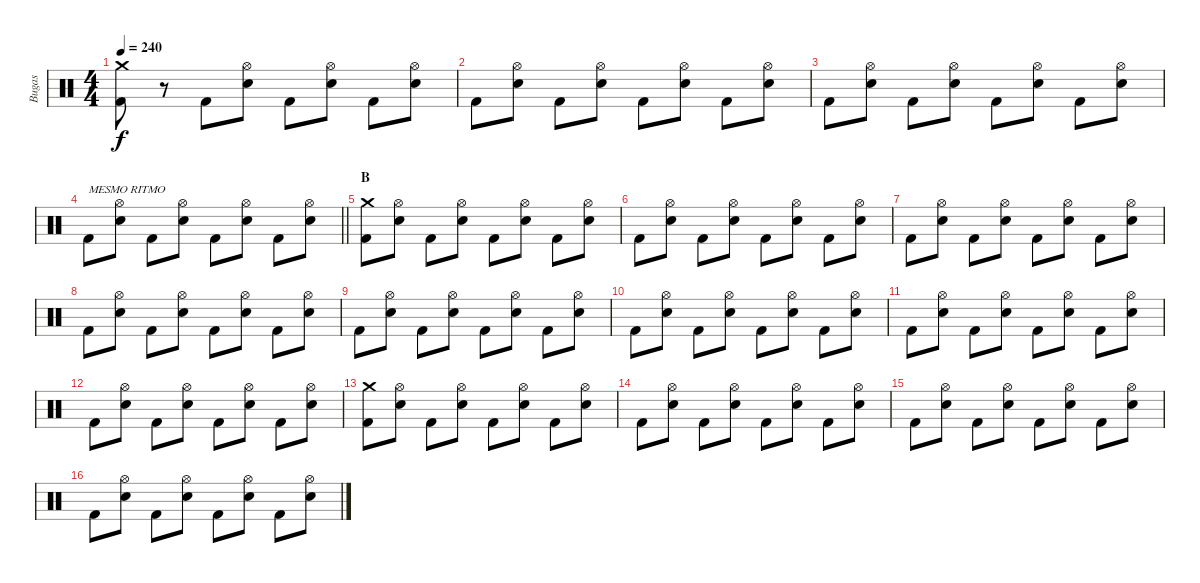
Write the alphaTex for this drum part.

\track ("Bugas" "Bugas") {instrument percussion}
\staff {score}
\articulation defaults
\ts (4 4)
\tempo 240
\clef neutral
\ks c
("Crash medium (hit)" "Kick (hit) 2").8{dy f} r.8 "Kick (hit) 2".8 ("Hi-Hat (open)" "Electric Snare (hit)").8 "Kick (hit) 2".8 ("Hi-Hat (open)" "Electric Snare (hit)").8 "Kick (hit) 2".8 ("Hi-Hat (open)" "Electric Snare (hit)").8 |
"Kick (hit) 2".8 ("Hi-Hat (open)" "Electric Snare (hit)").8 "Kick (hit) 2".8 ("Hi-Hat (open)" "Electric Snare (hit)").8 "Kick (hit) 2".8 ("Hi-Hat (open)" "Electric Snare (hit)").8 "Kick (hit) 2".8 ("Hi-Hat (open)" "Electric Snare (hit)").8 |
"Kick (hit) 2".8 ("Hi-Hat (open)" "Electric Snare (hit)").8 "Kick (hit) 2".8 ("Hi-Hat (open)" "Electric Snare (hit)").8 "Kick (hit) 2".8 ("Hi-Hat (open)" "Electric Snare (hit)").8 "Kick (hit) 2".8 ("Hi-Hat (open)" "Electric Snare (hit)").8 |
\barLineRight lightlight "Kick (hit) 2".8{txt "MESMO RITMO"}
("Hi-Hat (open)" "Electric Snare (hit)").8 "Kick (hit) 2".8 ("Hi-Hat (open)" "Electric Snare (hit)").8 "Kick (hit) 2".8 ("Hi-Hat (open)" "Electric Snare (hit)").8 "Kick (hit) 2".8 ("Hi-Hat (open)" "Electric Snare (hit)").8 |
\section ("" "B")
("Crash medium (hit)" "Kick (hit) 2").8 ("Hi-Hat (open)" "Electric Snare (hit)").8 "Kick (hit) 2".8 ("Hi-Hat (open)" "Electric Snare (hit)").8 "Kick (hit) 2".8 ("Hi-Hat (open)" "Electric Snare (hit)").8 "Kick (hit) 2".8 ("Hi-Hat (open)" "Electric Snare (hit)").8 |
"Kick (hit) 2".8 ("Hi-Hat (open)" "Electric Snare (hit)").8 "Kick (hit) 2".8 ("Hi-Hat (open)" "Electric Snare (hit)").8 "Kick (hit) 2".8 ("Hi-Hat (open)" "Electric Snare (hit)").8 "Kick (hit) 2".8 ("Hi-Hat (open)" "Electric Snare (hit)").8 |
"Kick (hit) 2".8 ("Hi-Hat (open)" "Electric Snare (hit)").8 "Kick (hit) 2".8 ("Hi-Hat (open)" "Electric Snare (hit)").8 "Kick (hit) 2".8 ("Hi-Hat (open)" "Electric Snare (hit)").8 "Kick (hit) 2".8 ("Hi-Hat (open)" "Electric Snare (hit)").8 |
"Kick (hit) 2".8 ("Hi-Hat (open)" "Electric Snare (hit)").8 "Kick (hit) 2".8 ("Hi-Hat (open)" "Electric Snare (hit)").8 "Kick (hit) 2".8 ("Hi-Hat (open)" "Electric Snare (hit)").8 "Kick (hit) 2".8 ("Hi-Hat (open)" "Electric Snare (hit)").8 |
"Kick (hit) 2".8 ("Hi-Hat (open)" "Electric Snare (hit)").8 "Kick (hit) 2".8 ("Hi-Hat (open)" "Electric Snare (hit)").8 "Kick (hit) 2".8 ("Hi-Hat (open)" "Electric Snare (hit)").8 "Kick (hit) 2".8 ("Hi-Hat (open)" "Electric Snare (hit)").8 |
"Kick (hit) 2".8 ("Hi-Hat (open)" "Electric Snare (hit)").8 "Kick (hit) 2".8 ("Hi-Hat (open)" "Electric Snare (hit)").8 "Kick (hit) 2".8 ("Hi-Hat (open)" "Electric Snare (hit)").8 "Kick (hit) 2".8 ("Hi-Hat (open)" "Electric Snare (hit)").8 |
"Kick (hit) 2".8 ("Hi-Hat (open)" "Electric Snare (hit)").8 "Kick (hit) 2".8 ("Hi-Hat (open)" "Electric Snare (hit)").8 "Kick (hit) 2".8 ("Hi-Hat (open)" "Electric Snare (hit)").8 "Kick (hit) 2".8 ("Hi-Hat (open)" "Electric Snare (hit)").8 |
"Kick (hit) 2".8 ("Hi-Hat (open)" "Electric Snare (hit)").8 "Kick (hit) 2".8 ("Hi-Hat (open)" "Electric Snare (hit)").8 "Kick (hit) 2".8 ("Hi-Hat (open)" "Electric Snare (hit)").8 "Kick (hit) 2".8 ("Hi-Hat (open)" "Electric Snare (hit)").8 |
("Crash medium (hit)" "Kick (hit) 2").8 ("Hi-Hat (open)" "Electric Snare (hit)").8 "Kick (hit) 2".8 ("Hi-Hat (open)" "Electric Snare (hit)").8 "Kick (hit) 2".8 ("Hi-Hat (open)" "Electric Snare (hit)").8 "Kick (hit) 2".8 ("Hi-Hat (open)" "Electric Snare (hit)").8 |
"Kick (hit) 2".8 ("Hi-Hat (open)" "Electric Snare (hit)").8 "Kick (hit) 2".8 ("Hi-Hat (open)" "Electric Snare (hit)").8 "Kick (hit) 2".8 ("Hi-Hat (open)" "Electric Snare (hit)").8 "Kick (hit) 2".8 ("Hi-Hat (open)" "Electric Snare (hit)").8 |
"Kick (hit) 2".8 ("Hi-Hat (open)" "Electric Snare (hit)").8 "Kick (hit) 2".8 ("Hi-Hat (open)" "Electric Snare (hit)").8 "Kick (hit) 2".8 ("Hi-Hat (open)" "Electric Snare (hit)").8 "Kick (hit) 2".8 ("Hi-Hat (open)" "Electric Snare (hit)").8 |
"Kick (hit) 2".8 ("Hi-Hat (open)" "Electric Snare (hit)").8 "Kick (hit) 2".8 ("Hi-Hat (open)" "Electric Snare (hit)").8 "Kick (hit) 2".8 ("Hi-Hat (open)" "Electric Snare (hit)").8 "Kick (hit) 2".8 ("Hi-Hat (open)" "Electric Snare (hit)").8
